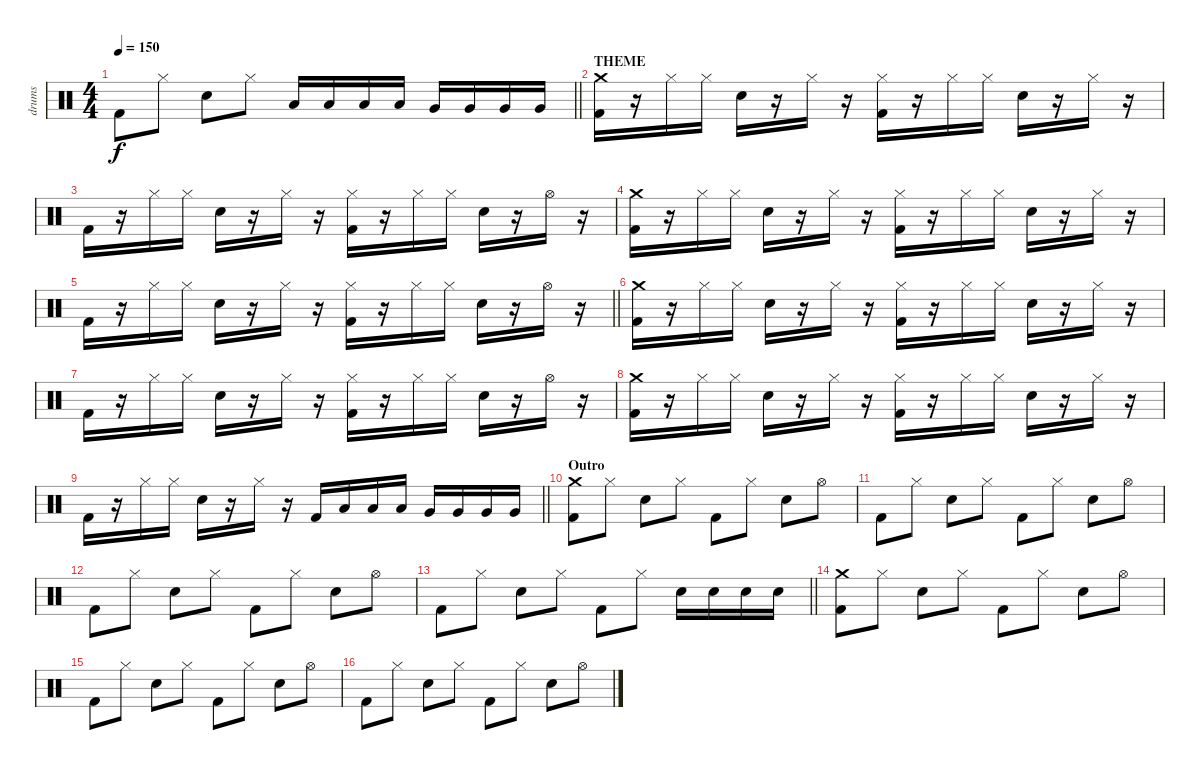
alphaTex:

\track ("drums" "drums") {instrument percussion}
\staff {score}
\articulation defaults
\ts (4 4)
\tempo 150
\clef neutral
\barLineRight lightlight
\ks c "Kick (hit) 2".8{dy f} "Hi-Hat (closed)".8 "Electric Snare (hit)".8 "Hi-Hat (closed)".8 "Low Floor Tom (hit)".16 "Low Floor Tom (hit)".16 "Low Floor Tom (hit)".16 "Low Floor Tom (hit)".16 "Very Low Tom (hit)".16 "Very Low Tom (hit)".16 "Very Low Tom (hit)".16 "Very Low Tom (hit)".16
|
\section ("" "THEME")
("Kick (hit) 2" "Crash medium (hit)").16 r.16 "Hi-Hat (closed)".16 "Hi-Hat (closed)".16 "Electric Snare (hit)".16 r.16 "Hi-Hat (closed)".16 r.16 ("Hi-Hat (closed)" "Kick (hit) 2").16 r.16 "Hi-Hat (closed)".16 "Hi-Hat (closed)".16 "Electric Snare (hit)".16 r.16 "Hi-Hat (closed)".16 r.16 |
"Kick (hit) 2".16 r.16 "Hi-Hat (closed)".16 "Hi-Hat (closed)".16 "Electric Snare (hit)".16 r.16 "Hi-Hat (closed)".16 r.16 ("Hi-Hat (closed)" "Kick (hit) 2").16 r.16 "Hi-Hat (closed)".16 "Hi-Hat (closed)".16 "Electric Snare (hit)".16 r.16 "Hi-Hat (open)".16 r.16 |
("Kick (hit) 2" "Crash medium (hit)").16 r.16 "Hi-Hat (closed)".16 "Hi-Hat (closed)".16 "Electric Snare (hit)".16 r.16 "Hi-Hat (closed)".16 r.16 ("Hi-Hat (closed)" "Kick (hit) 2").16 r.16 "Hi-Hat (closed)".16 "Hi-Hat (closed)".16 "Electric Snare (hit)".16 r.16 "Hi-Hat (closed)".16 r.16 |
\barLineRight lightlight "Kick (hit) 2".16
r.16 "Hi-Hat (closed)".16 "Hi-Hat (closed)".16 "Electric Snare (hit)".16 r.16 "Hi-Hat (closed)".16 r.16 ("Hi-Hat (closed)" "Kick (hit) 2").16 r.16 "Hi-Hat (closed)".16 "Hi-Hat (closed)".16 "Electric Snare (hit)".16 r.16 "Hi-Hat (open)".16 r.16 |
("Kick (hit) 2" "Crash medium (hit)").16 r.16 "Hi-Hat (closed)".16 "Hi-Hat (closed)".16 "Electric Snare (hit)".16 r.16 "Hi-Hat (closed)".16 r.16 ("Hi-Hat (closed)" "Kick (hit) 2").16 r.16 "Hi-Hat (closed)".16 "Hi-Hat (closed)".16 "Electric Snare (hit)".16 r.16 "Hi-Hat (closed)".16 r.16 |
"Kick (hit) 2".16 r.16 "Hi-Hat (closed)".16 "Hi-Hat (closed)".16 "Electric Snare (hit)".16 r.16 "Hi-Hat (closed)".16 r.16 ("Hi-Hat (closed)" "Kick (hit) 2").16 r.16 "Hi-Hat (closed)".16 "Hi-Hat (closed)".16 "Electric Snare (hit)".16 r.16 "Hi-Hat (open)".16 r.16 |
("Kick (hit) 2" "Crash medium (hit)").16 r.16 "Hi-Hat (closed)".16 "Hi-Hat (closed)".16 "Electric Snare (hit)".16 r.16 "Hi-Hat (closed)".16 r.16 ("Hi-Hat (closed)" "Kick (hit) 2").16 r.16 "Hi-Hat (closed)".16 "Hi-Hat (closed)".16 "Electric Snare (hit)".16 r.16 "Hi-Hat (closed)".16 r.16 |
\barLineRight lightlight "Kick (hit) 2".16
r.16 "Hi-Hat (closed)".16 "Hi-Hat (closed)".16 "Electric Snare (hit)".16 r.16 "Hi-Hat (closed)".16 r.16 "Kick (hit) 2".16 "Low Floor Tom (hit)".16 "Low Floor Tom (hit)".16 "Low Floor Tom (hit)".16 "Very Low Tom (hit)".16 "Very Low Tom (hit)".16 "Very Low Tom (hit)".16 "Very Low Tom (hit)".16 |
\section ("" "Outro")
("Kick (hit) 2" "Crash medium (hit)").8 "Hi-Hat (closed)".8 "Electric Snare (hit)".8 "Hi-Hat (closed)".8 "Kick (hit) 2".8 "Hi-Hat (closed)".8 "Electric Snare (hit)".8 "Hi-Hat (open)".8 |
"Kick (hit) 2".8 "Hi-Hat (closed)".8 "Electric Snare (hit)".8 "Hi-Hat (closed)".8 "Kick (hit) 2".8 "Hi-Hat (closed)".8 "Electric Snare (hit)".8 "Hi-Hat (open)".8 |
"Kick (hit) 2".8 "Hi-Hat (closed)".8 "Electric Snare (hit)".8 "Hi-Hat (closed)".8 "Kick (hit) 2".8 "Hi-Hat (closed)".8 "Electric Snare (hit)".8 "Hi-Hat (open)".8 |
\barLineRight lightlight "Kick (hit) 2".8 "Hi-Hat (closed)".8 "Electric Snare (hit)".8 "Hi-Hat (closed)".8 "Kick (hit) 2".8 "Hi-Hat (closed)".8 "Electric Snare (hit)".16 "Electric Snare (hit)".16 "Electric Snare (hit)".16 "Electric Snare (hit)".16
|
("Kick (hit) 2" "Crash medium (hit)").8 "Hi-Hat (closed)".8 "Electric Snare (hit)".8 "Hi-Hat (closed)".8 "Kick (hit) 2".8 "Hi-Hat (closed)".8 "Electric Snare (hit)".8 "Hi-Hat (open)".8 |
"Kick (hit) 2".8 "Hi-Hat (closed)".8 "Electric Snare (hit)".8 "Hi-Hat (closed)".8 "Kick (hit) 2".8 "Hi-Hat (closed)".8 "Electric Snare (hit)".8 "Hi-Hat (open)".8 |
"Kick (hit) 2".8 "Hi-Hat (closed)".8 "Electric Snare (hit)".8 "Hi-Hat (closed)".8 "Kick (hit) 2".8 "Hi-Hat (closed)".8 "Electric Snare (hit)".8 "Hi-Hat (open)".8
